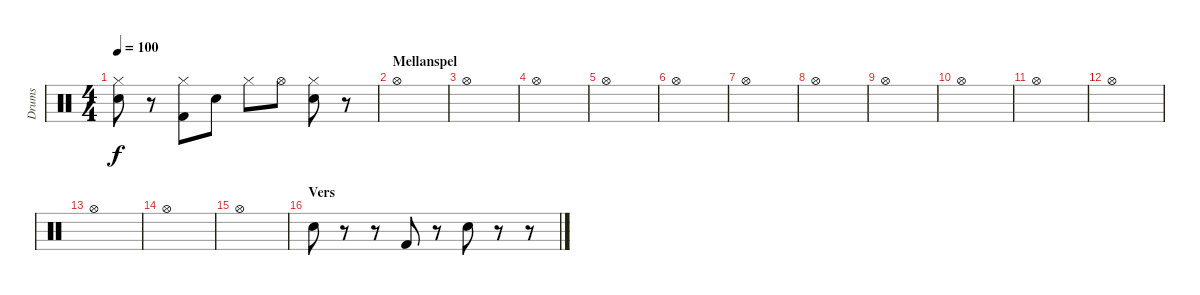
\track ("Drums" "Drums") {instrument percussion}
\staff {score}
\articulation defaults
\ts (4 4)
\tempo 100
\clef neutral
\ks c
("Hi-Hat (closed)" "Snare (hit) 2").8{dy f} r.8 ("Hi-Hat (closed)" "Kick (hit) 2").8 "Snare (hit) 2".8 "Hi-Hat (closed)".8 "Hi-Hat (open)".8 ("Hi-Hat (closed)" "Snare (hit) 2").8 r.8 |
\section ("" "Mellanspel")
"Hi-Hat (open)".1 |
"Hi-Hat (open)".1 |
"Hi-Hat (open)".1 |
"Hi-Hat (open)".1 |
"Hi-Hat (open)".1 |
"Hi-Hat (open)".1 |
"Hi-Hat (open)".1 |
"Hi-Hat (open)".1 |
"Hi-Hat (open)".1 |
"Hi-Hat (open)".1 |
"Hi-Hat (open)".1 |
"Hi-Hat (open)".1 |
"Hi-Hat (open)".1 |
"Hi-Hat (open)".1 |
\section ("" "Vers")
"Snare (hit) 2".8 r.8 r.8 "Kick (hit) 2".8 r.8 "Snare (hit) 2".8 r.8 r.8
